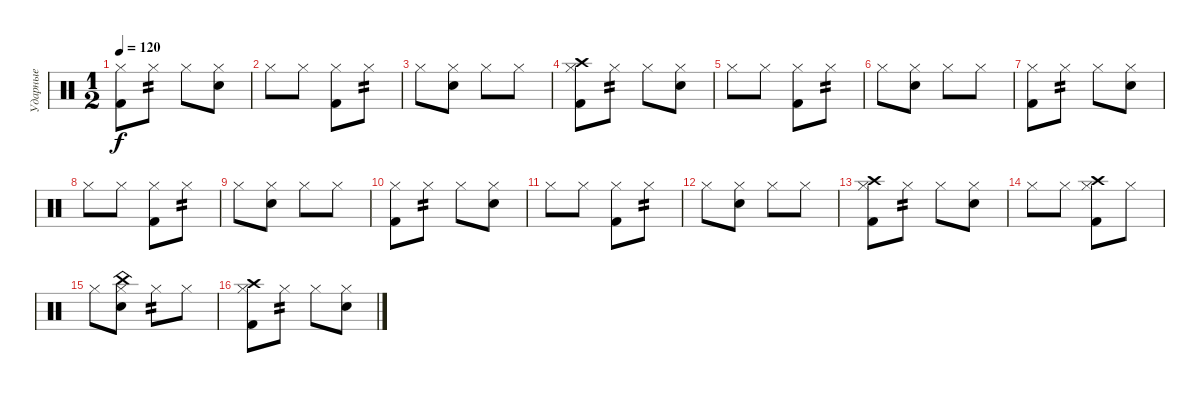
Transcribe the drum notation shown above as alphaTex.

\track ("Ударные" "Ударные") {instrument percussion}
\staff {score}
\articulation defaults
\ts (1 2)
\tempo 120
\clef neutral
\ks c
("Hi-Hat (closed)" "Kick (hit) 2").8{dy f} "Hi-Hat (closed)".8{tp 2} "Hi-Hat (closed)".8 ("Hi-Hat (closed)" "Snare (hit) 2").8 |
"Hi-Hat (closed)".8 "Hi-Hat (closed)".8 ("Hi-Hat (closed)" "Kick (hit) 2").8 "Hi-Hat (closed)".8{tp 2} |
"Hi-Hat (closed)".8 ("Hi-Hat (closed)" "Snare (hit) 2").8 "Hi-Hat (closed)".8 "Hi-Hat (closed)".8 |
("Crash high (hit)" "Hi-Hat (closed)" "Kick (hit) 2").8 "Hi-Hat (closed)".8{tp 2} "Hi-Hat (closed)".8 ("Hi-Hat (closed)" "Snare (hit) 2").8 |
"Hi-Hat (closed)".8 "Hi-Hat (closed)".8 ("Hi-Hat (closed)" "Kick (hit) 2").8 "Hi-Hat (closed)".8{tp 2} |
"Hi-Hat (closed)".8 ("Hi-Hat (closed)" "Snare (hit) 2").8 "Hi-Hat (closed)".8 "Hi-Hat (closed)".8 |
("Hi-Hat (closed)" "Kick (hit) 2").8 "Hi-Hat (closed)".8{tp 2} "Hi-Hat (closed)".8 ("Hi-Hat (closed)" "Snare (hit) 2").8 |
"Hi-Hat (closed)".8 "Hi-Hat (closed)".8 ("Hi-Hat (closed)" "Kick (hit) 2").8 "Hi-Hat (closed)".8{tp 2} |
"Hi-Hat (closed)".8 ("Hi-Hat (closed)" "Snare (hit) 2").8 "Hi-Hat (closed)".8 "Hi-Hat (closed)".8 |
("Hi-Hat (closed)" "Kick (hit) 2").8 "Hi-Hat (closed)".8{tp 2} "Hi-Hat (closed)".8 ("Hi-Hat (closed)" "Snare (hit) 2").8 |
"Hi-Hat (closed)".8 "Hi-Hat (closed)".8 ("Hi-Hat (closed)" "Kick (hit) 2").8 "Hi-Hat (closed)".8{tp 2} |
"Hi-Hat (closed)".8 ("Hi-Hat (closed)" "Snare (hit) 2").8 "Hi-Hat (closed)".8 "Hi-Hat (closed)".8 |
("Crash high (hit)" "Hi-Hat (closed)" "Kick (hit) 2").8 "Hi-Hat (closed)".8{tp 2} "Hi-Hat (closed)".8 ("Hi-Hat (closed)" "Snare (hit) 2").8 |
"Hi-Hat (closed)".8 "Hi-Hat (closed)".8 ("Crash high (hit)" "Hi-Hat (closed)" "Kick (hit) 2").8 "Hi-Hat (closed)".8 |
"Hi-Hat (closed)".8 ("China (hit)" "Hi-Hat (closed)" "Snare (hit) 2").8 "Hi-Hat (closed)".8{tp 2} "Hi-Hat (closed)".8 |
("Crash high (hit)" "Hi-Hat (closed)" "Kick (hit) 2").8 "Hi-Hat (closed)".8{tp 2} "Hi-Hat (closed)".8 ("Hi-Hat (closed)" "Snare (hit) 2").8
